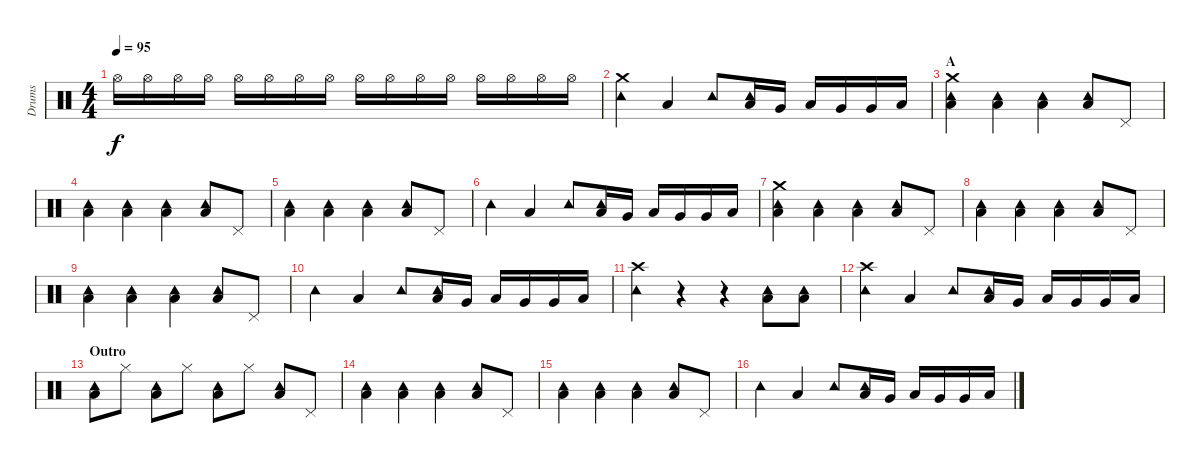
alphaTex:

\track ("Drums" "Drums") {instrument percussion}
\staff {score}
\articulation defaults
\ts (4 4)
\tempo 95
\clef neutral
\ks c "Hi-Hat (open)".16{dy f volume 16} "Hi-Hat (open)".16 "Hi-Hat (open)".16 "Hi-Hat (open)".16 "Hi-Hat (open)".16 "Hi-Hat (open)".16 "Hi-Hat (open)".16 "Hi-Hat (open)".16 "Hi-Hat (open)".16 "Hi-Hat (open)".16 "Hi-Hat (open)".16 "Hi-Hat (open)".16 "Hi-Hat (open)".16 "Hi-Hat (open)".16 "Hi-Hat (open)".16 "Hi-Hat (open)".16
|
("Crash medium (hit)" "Tambourine (hit)").4 "Low Tom (hit)".4 "Tambourine (hit)".8 ("Low Tom (hit)" "Tambourine (hit)").16 "Very Low Tom (hit)".16 "Low Tom (hit)".16 "Very Low Tom (hit)".16 "Very Low Tom (hit)".16 "Low Floor Tom (hit)".16 |
\section ("" "A")
("Crash medium (hit)" "Low Tom (hit)" "Tambourine (hit)").4 ("Low Tom (hit)" "Tambourine (hit)").4 ("Low Tom (hit)" "Tambourine (hit)").4 ("Low Tom (hit)" "Tambourine (hit)").8 "Pedal Hi-Hat (hit)".8 |
("Low Tom (hit)" "Tambourine (hit)").4 ("Low Tom (hit)" "Tambourine (hit)").4 ("Low Tom (hit)" "Tambourine (hit)").4 ("Low Tom (hit)" "Tambourine (hit)").8 "Pedal Hi-Hat (hit)".8 |
("Low Tom (hit)" "Tambourine (hit)").4 ("Low Tom (hit)" "Tambourine (hit)").4 ("Low Tom (hit)" "Tambourine (hit)").4 ("Low Tom (hit)" "Tambourine (hit)").8 "Pedal Hi-Hat (hit)".8 |
"Tambourine (hit)".4 "Low Tom (hit)".4 "Tambourine (hit)".8 ("Low Tom (hit)" "Tambourine (hit)").16 "Very Low Tom (hit)".16 "Low Tom (hit)".16 "Very Low Tom (hit)".16 "Very Low Tom (hit)".16 "Low Floor Tom (hit)".16 |
("Crash medium (hit)" "Low Tom (hit)" "Tambourine (hit)").4 ("Low Tom (hit)" "Tambourine (hit)").4 ("Low Tom (hit)" "Tambourine (hit)").4 ("Low Tom (hit)" "Tambourine (hit)").8 "Pedal Hi-Hat (hit)".8 |
("Low Tom (hit)" "Tambourine (hit)").4 ("Low Tom (hit)" "Tambourine (hit)").4 ("Low Tom (hit)" "Tambourine (hit)").4 ("Low Tom (hit)" "Tambourine (hit)").8 "Pedal Hi-Hat (hit)".8 |
("Low Tom (hit)" "Tambourine (hit)").4 ("Low Tom (hit)" "Tambourine (hit)").4 ("Low Tom (hit)" "Tambourine (hit)").4 ("Low Tom (hit)" "Tambourine (hit)").8 "Pedal Hi-Hat (hit)".8 |
"Tambourine (hit)".4 "Low Tom (hit)".4 "Tambourine (hit)".8 ("Low Floor Tom (hit)" "Tambourine (hit)").16 "Very Low Tom (hit)".16 "Low Floor Tom (hit)".16 "Very Low Tom (hit)".16 "Very Low Tom (hit)".16 "Low Tom (hit)".16 |
("Crash high (hit)" "Tambourine (hit)").4 r.4 r.4 ("Low Tom (hit)" "Tambourine (hit)").8 ("Low Tom (hit)" "Tambourine (hit)").8 |
("Crash high (hit)" "Tambourine (hit)").4 "Low Tom (hit)".4 "Tambourine (hit)".8 ("Low Tom (hit)" "Tambourine (hit)").16 "Very Low Tom (hit)".16 "Low Tom (hit)".16 "Very Low Tom (hit)".16 "Very Low Tom (hit)".16 "Low Floor Tom (hit)".16 |
\section ("" "Outro")
("Low Tom (hit)" "Tambourine (hit)").8 "Hi-Hat (closed)".8 ("Low Tom (hit)" "Tambourine (hit)").8 "Hi-Hat (closed)".8 ("Low Tom (hit)" "Tambourine (hit)").8 "Hi-Hat (closed)".8 ("Low Tom (hit)" "Tambourine (hit)").8 "Pedal Hi-Hat (hit)".8 |
("Low Tom (hit)" "Tambourine (hit)").4 ("Low Tom (hit)" "Tambourine (hit)").4 ("Low Tom (hit)" "Tambourine (hit)").4 ("Low Tom (hit)" "Tambourine (hit)").8 "Pedal Hi-Hat (hit)".8 |
("Low Tom (hit)" "Tambourine (hit)").4 ("Low Tom (hit)" "Tambourine (hit)").4 ("Low Tom (hit)" "Tambourine (hit)").4 ("Low Tom (hit)" "Tambourine (hit)").8 "Pedal Hi-Hat (hit)".8 |
"Tambourine (hit)".4 "Low Tom (hit)".4 "Tambourine (hit)".8 ("Low Tom (hit)" "Tambourine (hit)").16 "Very Low Tom (hit)".16 "Low Tom (hit)".16 "Very Low Tom (hit)".16 "Very Low Tom (hit)".16 "Low Floor Tom (hit)".16
